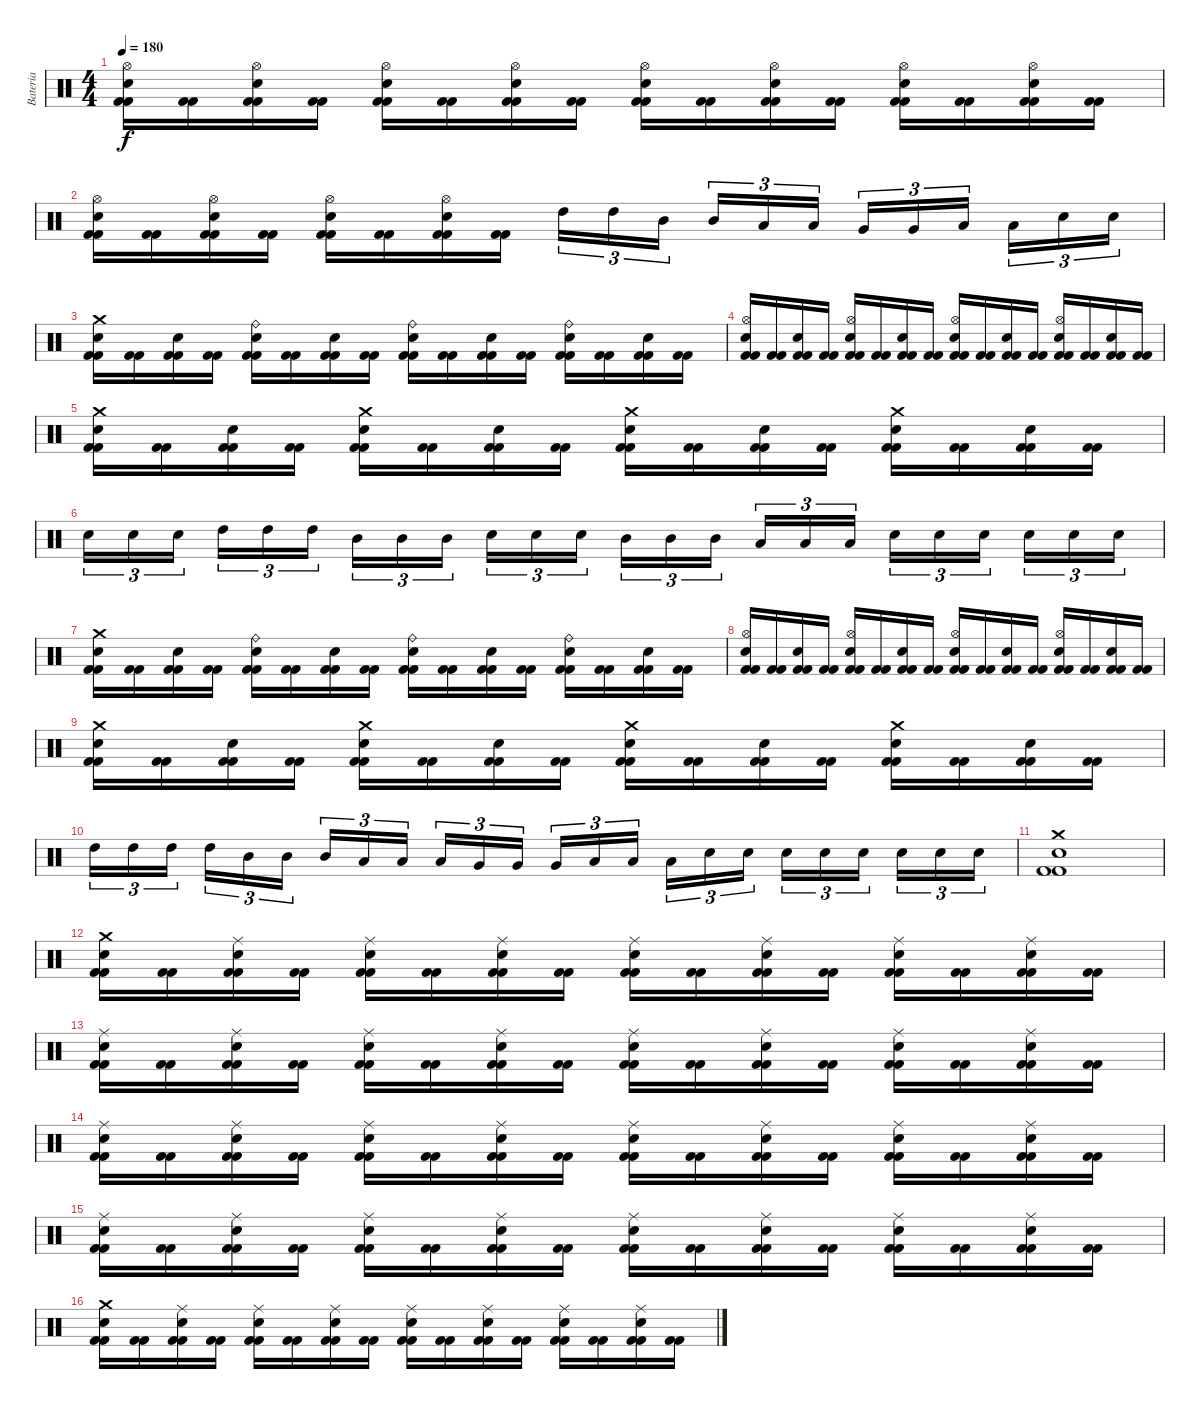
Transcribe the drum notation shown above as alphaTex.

\track ("Bateria" "Bateria") {instrument percussion}
\staff {score}
\articulation defaults
\ts (4 4)
\tempo 180
\clef neutral
\ks c
("Kick (hit) 2" "Kick (hit) 2" "Electric Snare (hit)" "Hi-Hat (open)").16{dy f} ("Kick (hit) 2" "Kick (hit) 2").16 ("Kick (hit) 2" "Kick (hit) 2" "Hi-Hat (open)" "Electric Snare (hit)").16 ("Kick (hit) 2" "Kick (hit) 2").16 ("Kick (hit) 2" "Kick (hit) 2" "Electric Snare (hit)" "Hi-Hat (open)").16 ("Kick (hit) 2" "Kick (hit) 2").16 ("Kick (hit) 2" "Kick (hit) 2" "Hi-Hat (open)" "Electric Snare (hit)").16 ("Kick (hit) 2" "Kick (hit) 2").16 ("Kick (hit) 2" "Kick (hit) 2" "Electric Snare (hit)" "Hi-Hat (open)").16 ("Kick (hit) 2" "Kick (hit) 2").16 ("Kick (hit) 2" "Kick (hit) 2" "Hi-Hat (open)" "Electric Snare (hit)").16 ("Kick (hit) 2" "Kick (hit) 2").16 ("Kick (hit) 2" "Kick (hit) 2" "Electric Snare (hit)" "Hi-Hat (open)").16 ("Kick (hit) 2" "Kick (hit) 2").16 ("Kick (hit) 2" "Kick (hit) 2" "Hi-Hat (open)" "Electric Snare (hit)").16 ("Kick (hit) 2" "Kick (hit) 2").16 |
("Kick (hit) 2" "Kick (hit) 2" "Electric Snare (hit)" "Hi-Hat (open)").16 ("Kick (hit) 2" "Kick (hit) 2").16 ("Kick (hit) 2" "Kick (hit) 2" "Hi-Hat (open)" "Electric Snare (hit)").16 ("Kick (hit) 2" "Kick (hit) 2").16 ("Kick (hit) 2" "Kick (hit) 2" "Electric Snare (hit)" "Hi-Hat (open)").16 ("Kick (hit) 2" "Kick (hit) 2").16 ("Kick (hit) 2" "Kick (hit) 2" "Hi-Hat (open)" "Electric Snare (hit)").16 ("Kick (hit) 2" "Kick (hit) 2").16 "High Tom (hit)".16{tu (3 2)} "High Tom (hit)".16{tu (3 2)} "Mid Tom (hit)".16{tu (3 2)} "Mid Tom (hit)".16{tu (3 2)} "Low Tom (hit)".16{tu (3 2)} "Low Tom (hit)".16{tu (3 2)} "Very Low Tom (hit)".16{tu (3 2)} "Very Low Tom (hit)".16{tu (3 2)} "Low Floor Tom (hit)".16{tu (3 2)} "Low Floor Tom (hit)".16{tu (3 2)} "Electric Snare (hit)".16{tu (3 2)} "Electric Snare (hit)".16{tu (3 2)} |
("Kick (hit) 2" "Kick (hit) 2" "Snare (hit) 2" "Crash medium (hit)").16 ("Kick (hit) 2" "Kick (hit) 2").16 ("Kick (hit) 2" "Kick (hit) 2" "Snare (hit) 2").16 ("Kick (hit) 2" "Kick (hit) 2").16 ("Kick (hit) 2" "Kick (hit) 2" "Snare (hit) 2" "Ride (bell)").16 ("Kick (hit) 2" "Kick (hit) 2").16 ("Kick (hit) 2" "Kick (hit) 2" "Snare (hit) 2").16 ("Kick (hit) 2" "Kick (hit) 2").16 ("Kick (hit) 2" "Kick (hit) 2" "Snare (hit) 2" "Ride (bell)").16 ("Kick (hit) 2" "Kick (hit) 2").16 ("Kick (hit) 2" "Kick (hit) 2" "Snare (hit) 2").16 ("Kick (hit) 2" "Kick (hit) 2").16 ("Kick (hit) 2" "Kick (hit) 2" "Snare (hit) 2" "Ride (bell)").16 ("Kick (hit) 2" "Kick (hit) 2").16 ("Kick (hit) 2" "Kick (hit) 2" "Snare (hit) 2").16 ("Kick (hit) 2" "Kick (hit) 2").16 |
("Kick (hit) 2" "Kick (hit) 2" "Snare (hit) 2" "Hi-Hat (open)").16 ("Kick (hit) 2" "Kick (hit) 2").16 ("Kick (hit) 2" "Kick (hit) 2" "Snare (hit) 2").16 ("Kick (hit) 2" "Kick (hit) 2").16 ("Kick (hit) 2" "Kick (hit) 2" "Snare (hit) 2" "Hi-Hat (open)").16 ("Kick (hit) 2" "Kick (hit) 2").16 ("Kick (hit) 2" "Kick (hit) 2" "Snare (hit) 2").16 ("Kick (hit) 2" "Kick (hit) 2").16 ("Kick (hit) 2" "Kick (hit) 2" "Snare (hit) 2" "Hi-Hat (open)").16 ("Kick (hit) 2" "Kick (hit) 2").16 ("Kick (hit) 2" "Kick (hit) 2" "Snare (hit) 2").16 ("Kick (hit) 2" "Kick (hit) 2").16 ("Kick (hit) 2" "Kick (hit) 2" "Snare (hit) 2" "Hi-Hat (open)").16 ("Kick (hit) 2" "Kick (hit) 2").16 ("Kick (hit) 2" "Kick (hit) 2" "Snare (hit) 2").16 ("Kick (hit) 2" "Kick (hit) 2").16 |
("Kick (hit) 2" "Kick (hit) 2" "Snare (hit) 2" "Crash medium (hit)").16 ("Kick (hit) 2" "Kick (hit) 2").16 ("Kick (hit) 2" "Kick (hit) 2" "Snare (hit) 2").16 ("Kick (hit) 2" "Kick (hit) 2").16 ("Kick (hit) 2" "Kick (hit) 2" "Snare (hit) 2" "Crash medium (hit)").16 ("Kick (hit) 2" "Kick (hit) 2").16 ("Kick (hit) 2" "Kick (hit) 2" "Snare (hit) 2").16 ("Kick (hit) 2" "Kick (hit) 2").16 ("Kick (hit) 2" "Kick (hit) 2" "Snare (hit) 2" "Crash medium (hit)").16 ("Kick (hit) 2" "Kick (hit) 2").16 ("Kick (hit) 2" "Kick (hit) 2" "Snare (hit) 2").16 ("Kick (hit) 2" "Kick (hit) 2").16 ("Kick (hit) 2" "Kick (hit) 2" "Snare (hit) 2" "Crash medium (hit)").16 ("Kick (hit) 2" "Kick (hit) 2").16 ("Kick (hit) 2" "Kick (hit) 2" "Snare (hit) 2").16 ("Kick (hit) 2" "Kick (hit) 2").16 |
"Electric Snare (hit)".16{tu (3 2)} "Electric Snare (hit)".16{tu (3 2)} "Electric Snare (hit)".16{tu (3 2)} "High Tom (hit)".16{tu (3 2)} "High Tom (hit)".16{tu (3 2)} "High Tom (hit)".16{tu (3 2)} "Mid Tom (hit)".16{tu (3 2)} "Mid Tom (hit)".16{tu (3 2)} "Mid Tom (hit)".16{tu (3 2)} "Electric Snare (hit)".16{tu (3 2)} "Electric Snare (hit)".16{tu (3 2)} "Electric Snare (hit)".16{tu (3 2)} "Mid Tom (hit)".16{tu (3 2)} "Mid Tom (hit)".16{tu (3 2)} "Mid Tom (hit)".16{tu (3 2)} "Low Tom (hit)".16{tu (3 2)} "Low Tom (hit)".16{tu (3 2)} "Low Tom (hit)".16{tu (3 2)} "Electric Snare (hit)".16{tu (3 2)} "Electric Snare (hit)".16{tu (3 2)} "Electric Snare (hit)".16{tu (3 2)} "Electric Snare (hit)".16{tu (3 2)} "Electric Snare (hit)".16{tu (3 2)} "Electric Snare (hit)".16{tu (3 2)} |
("Kick (hit) 2" "Kick (hit) 2" "Snare (hit) 2" "Crash medium (hit)").16 ("Kick (hit) 2" "Kick (hit) 2").16 ("Kick (hit) 2" "Kick (hit) 2" "Snare (hit) 2").16 ("Kick (hit) 2" "Kick (hit) 2").16 ("Kick (hit) 2" "Kick (hit) 2" "Snare (hit) 2" "Ride (bell)").16 ("Kick (hit) 2" "Kick (hit) 2").16 ("Kick (hit) 2" "Kick (hit) 2" "Snare (hit) 2").16 ("Kick (hit) 2" "Kick (hit) 2").16 ("Kick (hit) 2" "Kick (hit) 2" "Snare (hit) 2" "Ride (bell)").16 ("Kick (hit) 2" "Kick (hit) 2").16 ("Kick (hit) 2" "Kick (hit) 2" "Snare (hit) 2").16 ("Kick (hit) 2" "Kick (hit) 2").16 ("Kick (hit) 2" "Kick (hit) 2" "Snare (hit) 2" "Ride (bell)").16 ("Kick (hit) 2" "Kick (hit) 2").16 ("Kick (hit) 2" "Kick (hit) 2" "Snare (hit) 2").16 ("Kick (hit) 2" "Kick (hit) 2").16 |
("Kick (hit) 2" "Kick (hit) 2" "Snare (hit) 2" "Hi-Hat (open)").16 ("Kick (hit) 2" "Kick (hit) 2").16 ("Kick (hit) 2" "Kick (hit) 2" "Snare (hit) 2").16 ("Kick (hit) 2" "Kick (hit) 2").16 ("Kick (hit) 2" "Kick (hit) 2" "Snare (hit) 2" "Hi-Hat (open)").16 ("Kick (hit) 2" "Kick (hit) 2").16 ("Kick (hit) 2" "Kick (hit) 2" "Snare (hit) 2").16 ("Kick (hit) 2" "Kick (hit) 2").16 ("Kick (hit) 2" "Kick (hit) 2" "Snare (hit) 2" "Hi-Hat (open)").16 ("Kick (hit) 2" "Kick (hit) 2").16 ("Kick (hit) 2" "Kick (hit) 2" "Snare (hit) 2").16 ("Kick (hit) 2" "Kick (hit) 2").16 ("Kick (hit) 2" "Kick (hit) 2" "Snare (hit) 2" "Hi-Hat (open)").16 ("Kick (hit) 2" "Kick (hit) 2").16 ("Kick (hit) 2" "Kick (hit) 2" "Snare (hit) 2").16 ("Kick (hit) 2" "Kick (hit) 2").16 |
("Kick (hit) 2" "Kick (hit) 2" "Snare (hit) 2" "Crash medium (hit)").16 ("Kick (hit) 2" "Kick (hit) 2").16 ("Kick (hit) 2" "Kick (hit) 2" "Snare (hit) 2").16 ("Kick (hit) 2" "Kick (hit) 2").16 ("Kick (hit) 2" "Kick (hit) 2" "Snare (hit) 2" "Crash medium (hit)").16 ("Kick (hit) 2" "Kick (hit) 2").16 ("Kick (hit) 2" "Kick (hit) 2" "Snare (hit) 2").16 ("Kick (hit) 2" "Kick (hit) 2").16 ("Kick (hit) 2" "Kick (hit) 2" "Snare (hit) 2" "Crash medium (hit)").16 ("Kick (hit) 2" "Kick (hit) 2").16 ("Kick (hit) 2" "Kick (hit) 2" "Snare (hit) 2").16 ("Kick (hit) 2" "Kick (hit) 2").16 ("Kick (hit) 2" "Kick (hit) 2" "Snare (hit) 2" "Crash medium (hit)").16 ("Kick (hit) 2" "Kick (hit) 2").16 ("Kick (hit) 2" "Kick (hit) 2" "Snare (hit) 2").16 ("Kick (hit) 2" "Kick (hit) 2").16 |
"High Tom (hit)".16{tu (3 2)} "High Tom (hit)".16{tu (3 2)} "High Tom (hit)".16{tu (3 2)} "High Tom (hit)".16{tu (3 2)} "Mid Tom (hit)".16{tu (3 2)} "Mid Tom (hit)".16{tu (3 2)} "Mid Tom (hit)".16{tu (3 2)} "Low Tom (hit)".16{tu (3 2)} "Low Tom (hit)".16{tu (3 2)} "Low Tom (hit)".16{tu (3 2)} "Very Low Tom (hit)".16{tu (3 2)} "Very Low Tom (hit)".16{tu (3 2)} "Very Low Tom (hit)".16{tu (3 2)} "Low Floor Tom (hit)".16{tu (3 2)} "Low Floor Tom (hit)".16{tu (3 2)} "Low Floor Tom (hit)".16{tu (3 2)} "Electric Snare (hit)".16{tu (3 2)} "Electric Snare (hit)".16{tu (3 2)} "Electric Snare (hit)".16{tu (3 2)} "Electric Snare (hit)".16{tu (3 2)} "Electric Snare (hit)".16{tu (3 2)} "Electric Snare (hit)".16{tu (3 2)} "Electric Snare (hit)".16{tu (3 2)} "Electric Snare (hit)".16{tu (3 2)} |
("Kick (hit) 2" "Kick (hit) 2" "Electric Snare (hit)" "Crash medium (hit)").1 |
("Kick (hit) 2" "Kick (hit) 2" "Electric Snare (hit)" "Crash medium (hit)").16 ("Kick (hit) 2" "Kick (hit) 2").16 ("Kick (hit) 2" "Kick (hit) 2" "Electric Snare (hit)" "Ride (middle)").16 ("Kick (hit) 2" "Kick (hit) 2").16 ("Kick (hit) 2" "Kick (hit) 2" "Electric Snare (hit)" "Ride (middle)").16 ("Kick (hit) 2" "Kick (hit) 2").16 ("Kick (hit) 2" "Kick (hit) 2" "Electric Snare (hit)" "Ride (middle)").16 ("Kick (hit) 2" "Kick (hit) 2").16 ("Kick (hit) 2" "Kick (hit) 2" "Electric Snare (hit)" "Ride (middle)").16 ("Kick (hit) 2" "Kick (hit) 2").16 ("Kick (hit) 2" "Kick (hit) 2" "Electric Snare (hit)" "Ride (middle)").16 ("Kick (hit) 2" "Kick (hit) 2").16 ("Kick (hit) 2" "Kick (hit) 2" "Electric Snare (hit)" "Ride (middle)").16 ("Kick (hit) 2" "Kick (hit) 2").16 ("Kick (hit) 2" "Kick (hit) 2" "Electric Snare (hit)" "Ride (middle)").16 ("Kick (hit) 2" "Kick (hit) 2").16 |
("Kick (hit) 2" "Kick (hit) 2" "Electric Snare (hit)" "Ride (middle)").16 ("Kick (hit) 2" "Kick (hit) 2").16 ("Kick (hit) 2" "Kick (hit) 2" "Electric Snare (hit)" "Ride (middle)").16 ("Kick (hit) 2" "Kick (hit) 2").16 ("Kick (hit) 2" "Kick (hit) 2" "Electric Snare (hit)" "Ride (middle)").16 ("Kick (hit) 2" "Kick (hit) 2").16 ("Kick (hit) 2" "Kick (hit) 2" "Electric Snare (hit)" "Ride (middle)").16 ("Kick (hit) 2" "Kick (hit) 2").16 ("Kick (hit) 2" "Kick (hit) 2" "Electric Snare (hit)" "Ride (middle)").16 ("Kick (hit) 2" "Kick (hit) 2").16 ("Kick (hit) 2" "Kick (hit) 2" "Electric Snare (hit)" "Ride (middle)").16 ("Kick (hit) 2" "Kick (hit) 2").16 ("Kick (hit) 2" "Kick (hit) 2" "Electric Snare (hit)" "Ride (middle)").16 ("Kick (hit) 2" "Kick (hit) 2").16 ("Kick (hit) 2" "Kick (hit) 2" "Electric Snare (hit)" "Ride (middle)").16 ("Kick (hit) 2" "Kick (hit) 2").16 |
("Kick (hit) 2" "Kick (hit) 2" "Electric Snare (hit)" "Ride (middle)").16 ("Kick (hit) 2" "Kick (hit) 2").16 ("Kick (hit) 2" "Kick (hit) 2" "Electric Snare (hit)" "Ride (middle)").16 ("Kick (hit) 2" "Kick (hit) 2").16 ("Kick (hit) 2" "Kick (hit) 2" "Electric Snare (hit)" "Ride (middle)").16 ("Kick (hit) 2" "Kick (hit) 2").16 ("Kick (hit) 2" "Kick (hit) 2" "Electric Snare (hit)" "Ride (middle)").16 ("Kick (hit) 2" "Kick (hit) 2").16 ("Kick (hit) 2" "Kick (hit) 2" "Electric Snare (hit)" "Ride (middle)").16 ("Kick (hit) 2" "Kick (hit) 2").16 ("Kick (hit) 2" "Kick (hit) 2" "Electric Snare (hit)" "Ride (middle)").16 ("Kick (hit) 2" "Kick (hit) 2").16 ("Kick (hit) 2" "Kick (hit) 2" "Electric Snare (hit)" "Ride (middle)").16 ("Kick (hit) 2" "Kick (hit) 2").16 ("Kick (hit) 2" "Kick (hit) 2" "Electric Snare (hit)" "Ride (middle)").16 ("Kick (hit) 2" "Kick (hit) 2").16 |
("Kick (hit) 2" "Kick (hit) 2" "Electric Snare (hit)" "Ride (middle)").16 ("Kick (hit) 2" "Kick (hit) 2").16 ("Kick (hit) 2" "Kick (hit) 2" "Electric Snare (hit)" "Ride (middle)").16 ("Kick (hit) 2" "Kick (hit) 2").16 ("Kick (hit) 2" "Kick (hit) 2" "Electric Snare (hit)" "Ride (middle)").16 ("Kick (hit) 2" "Kick (hit) 2").16 ("Kick (hit) 2" "Kick (hit) 2" "Electric Snare (hit)" "Ride (middle)").16 ("Kick (hit) 2" "Kick (hit) 2").16 ("Kick (hit) 2" "Kick (hit) 2" "Electric Snare (hit)" "Ride (middle)").16 ("Kick (hit) 2" "Kick (hit) 2").16 ("Kick (hit) 2" "Kick (hit) 2" "Electric Snare (hit)" "Ride (middle)").16 ("Kick (hit) 2" "Kick (hit) 2").16 ("Kick (hit) 2" "Kick (hit) 2" "Electric Snare (hit)" "Ride (middle)").16 ("Kick (hit) 2" "Kick (hit) 2").16 ("Kick (hit) 2" "Kick (hit) 2" "Electric Snare (hit)" "Ride (middle)").16 ("Kick (hit) 2" "Kick (hit) 2").16 |
("Kick (hit) 2" "Kick (hit) 2" "Electric Snare (hit)" "Crash medium (hit)").16 ("Kick (hit) 2" "Kick (hit) 2").16 ("Kick (hit) 2" "Kick (hit) 2" "Electric Snare (hit)" "Ride (middle)").16 ("Kick (hit) 2" "Kick (hit) 2").16 ("Kick (hit) 2" "Kick (hit) 2" "Electric Snare (hit)" "Ride (middle)").16 ("Kick (hit) 2" "Kick (hit) 2").16 ("Kick (hit) 2" "Kick (hit) 2" "Electric Snare (hit)" "Ride (middle)").16 ("Kick (hit) 2" "Kick (hit) 2").16 ("Kick (hit) 2" "Kick (hit) 2" "Electric Snare (hit)" "Ride (middle)").16 ("Kick (hit) 2" "Kick (hit) 2").16 ("Kick (hit) 2" "Kick (hit) 2" "Electric Snare (hit)" "Ride (middle)").16 ("Kick (hit) 2" "Kick (hit) 2").16 ("Kick (hit) 2" "Kick (hit) 2" "Electric Snare (hit)" "Ride (middle)").16 ("Kick (hit) 2" "Kick (hit) 2").16 ("Kick (hit) 2" "Kick (hit) 2" "Electric Snare (hit)" "Ride (middle)").16 ("Kick (hit) 2" "Kick (hit) 2").16
